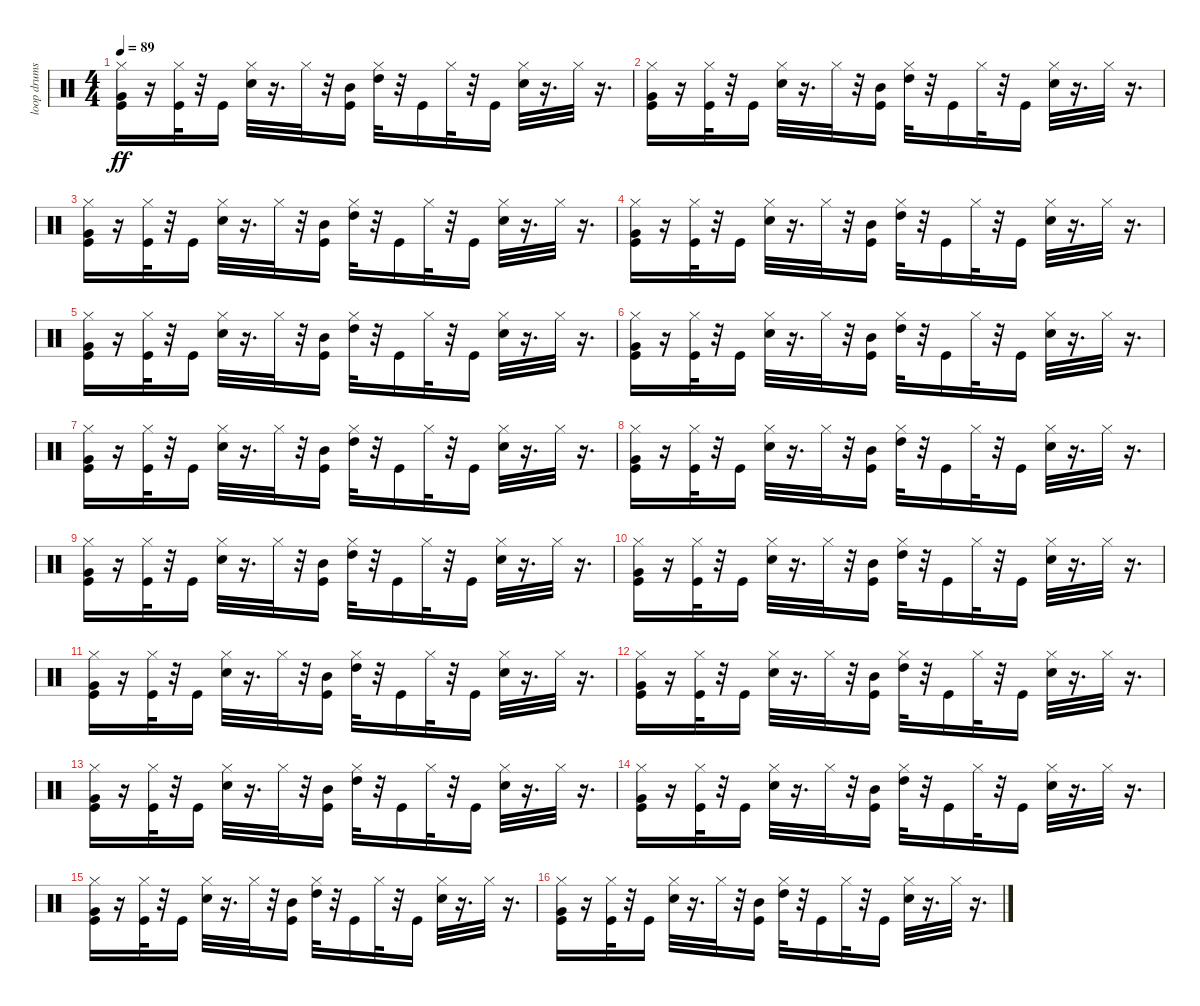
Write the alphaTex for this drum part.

\track ("loop drums" "loop drums") {instrument percussion}
\staff {score}
\articulation defaults
\ts (4 4)
\tempo 89
\clef neutral
\ks c
("Very Low Tom (hit)" "Kick (hit)" "Hi-Hat (closed)").16{dy ff} r.16 ("Kick (hit)" "Hi-Hat (closed)").32 r.32 "Kick (hit)".16 ("Hi-Hat (closed)" "Electric Snare (hit)").32 r.16{d} "Hi-Hat (closed)".32 r.32 ("Kick (hit)" "Mid Tom (hit)").16 ("Hi-Hat (closed)" "High Tom (hit)").32 r.32 "Kick (hit)".16 "Hi-Hat (closed)".32 r.32 "Kick (hit)".16 ("Hi-Hat (closed)" "Electric Snare (hit)").32 r.16{d} "Hi-Hat (closed)".32 r.16{d} |
("Very Low Tom (hit)" "Kick (hit)" "Hi-Hat (closed)").16 r.16 ("Kick (hit)" "Hi-Hat (closed)").32 r.32 "Kick (hit)".16 ("Hi-Hat (closed)" "Electric Snare (hit)").32 r.16{d} "Hi-Hat (closed)".32 r.32 ("Kick (hit)" "Mid Tom (hit)").16 ("Hi-Hat (closed)" "High Tom (hit)").32 r.32 "Kick (hit)".16 "Hi-Hat (closed)".32 r.32 "Kick (hit)".16 ("Hi-Hat (closed)" "Electric Snare (hit)").32 r.16{d} "Hi-Hat (closed)".32 r.16{d} |
("Kick (hit)" "Hi-Hat (closed)" "Very Low Tom (hit)").16 r.16 ("Kick (hit)" "Hi-Hat (closed)").32 r.32 "Kick (hit)".16 ("Hi-Hat (closed)" "Electric Snare (hit)").32 r.16{d} "Hi-Hat (closed)".32 r.32 ("Kick (hit)" "Mid Tom (hit)").16 ("Hi-Hat (closed)" "High Tom (hit)").32 r.32 "Kick (hit)".16 "Hi-Hat (closed)".32 r.32 "Kick (hit)".16 ("Hi-Hat (closed)" "Electric Snare (hit)").32 r.16{d} "Hi-Hat (closed)".32 r.16{d} |
("Very Low Tom (hit)" "Kick (hit)" "Hi-Hat (closed)").16 r.16 ("Kick (hit)" "Hi-Hat (closed)").32 r.32 "Kick (hit)".16 ("Hi-Hat (closed)" "Electric Snare (hit)").32 r.16{d} "Hi-Hat (closed)".32 r.32 ("Kick (hit)" "Mid Tom (hit)").16 ("Hi-Hat (closed)" "High Tom (hit)").32 r.32 "Kick (hit)".16 "Hi-Hat (closed)".32 r.32 "Kick (hit)".16 ("Hi-Hat (closed)" "Electric Snare (hit)").32 r.16{d} "Hi-Hat (closed)".32 r.16{d} |
("Very Low Tom (hit)" "Kick (hit)" "Hi-Hat (closed)").16 r.16 ("Kick (hit)" "Hi-Hat (closed)").32 r.32 "Kick (hit)".16 ("Hi-Hat (closed)" "Electric Snare (hit)").32 r.16{d} "Hi-Hat (closed)".32 r.32 ("Kick (hit)" "Mid Tom (hit)").16 ("Hi-Hat (closed)" "High Tom (hit)").32 r.32 "Kick (hit)".16 "Hi-Hat (closed)".32 r.32 "Kick (hit)".16 ("Hi-Hat (closed)" "Electric Snare (hit)").32 r.16{d} "Hi-Hat (closed)".32 r.16{d} |
("Very Low Tom (hit)" "Kick (hit)" "Hi-Hat (closed)").16 r.16 ("Kick (hit)" "Hi-Hat (closed)").32 r.32 "Kick (hit)".16 ("Hi-Hat (closed)" "Electric Snare (hit)").32 r.16{d} "Hi-Hat (closed)".32 r.32 ("Kick (hit)" "Mid Tom (hit)").16 ("Hi-Hat (closed)" "High Tom (hit)").32 r.32 "Kick (hit)".16 "Hi-Hat (closed)".32 r.32 "Kick (hit)".16 ("Hi-Hat (closed)" "Electric Snare (hit)").32 r.16{d} "Hi-Hat (closed)".32 r.16{d} |
("Kick (hit)" "Hi-Hat (closed)" "Very Low Tom (hit)").16 r.16 ("Kick (hit)" "Hi-Hat (closed)").32 r.32 "Kick (hit)".16 ("Hi-Hat (closed)" "Electric Snare (hit)").32 r.16{d} "Hi-Hat (closed)".32 r.32 ("Kick (hit)" "Mid Tom (hit)").16 ("Hi-Hat (closed)" "High Tom (hit)").32 r.32 "Kick (hit)".16 "Hi-Hat (closed)".32 r.32 "Kick (hit)".16 ("Hi-Hat (closed)" "Electric Snare (hit)").32 r.16{d} "Hi-Hat (closed)".32 r.16{d} |
("Very Low Tom (hit)" "Kick (hit)" "Hi-Hat (closed)").16 r.16 ("Kick (hit)" "Hi-Hat (closed)").32 r.32 "Kick (hit)".16 ("Hi-Hat (closed)" "Electric Snare (hit)").32 r.16{d} "Hi-Hat (closed)".32 r.32 ("Kick (hit)" "Mid Tom (hit)").16 ("Hi-Hat (closed)" "High Tom (hit)").32 r.32 "Kick (hit)".16 "Hi-Hat (closed)".32 r.32 "Kick (hit)".16 ("Hi-Hat (closed)" "Electric Snare (hit)").32 r.16{d} "Hi-Hat (closed)".32 r.16{d} |
("Very Low Tom (hit)" "Kick (hit)" "Hi-Hat (closed)").16 r.16 ("Kick (hit)" "Hi-Hat (closed)").32 r.32 "Kick (hit)".16 ("Hi-Hat (closed)" "Electric Snare (hit)").32 r.16{d} "Hi-Hat (closed)".32 r.32 ("Kick (hit)" "Mid Tom (hit)").16 ("Hi-Hat (closed)" "High Tom (hit)").32 r.32 "Kick (hit)".16 "Hi-Hat (closed)".32 r.32 "Kick (hit)".16 ("Hi-Hat (closed)" "Electric Snare (hit)").32 r.16{d} "Hi-Hat (closed)".32 r.16{d} |
("Very Low Tom (hit)" "Kick (hit)" "Hi-Hat (closed)").16 r.16 ("Kick (hit)" "Hi-Hat (closed)").32 r.32 "Kick (hit)".16 ("Hi-Hat (closed)" "Electric Snare (hit)").32 r.16{d} "Hi-Hat (closed)".32 r.32 ("Kick (hit)" "Mid Tom (hit)").16 ("Hi-Hat (closed)" "High Tom (hit)").32 r.32 "Kick (hit)".16 "Hi-Hat (closed)".32 r.32 "Kick (hit)".16 ("Hi-Hat (closed)" "Electric Snare (hit)").32 r.16{d} "Hi-Hat (closed)".32 r.16{d} |
("Kick (hit)" "Hi-Hat (closed)" "Very Low Tom (hit)").16 r.16 ("Kick (hit)" "Hi-Hat (closed)").32 r.32 "Kick (hit)".16 ("Hi-Hat (closed)" "Electric Snare (hit)").32 r.16{d} "Hi-Hat (closed)".32 r.32 ("Kick (hit)" "Mid Tom (hit)").16 ("Hi-Hat (closed)" "High Tom (hit)").32 r.32 "Kick (hit)".16 "Hi-Hat (closed)".32 r.32 "Kick (hit)".16 ("Hi-Hat (closed)" "Electric Snare (hit)").32 r.16{d} "Hi-Hat (closed)".32 r.16{d} |
("Very Low Tom (hit)" "Kick (hit)" "Hi-Hat (closed)").16 r.16 ("Kick (hit)" "Hi-Hat (closed)").32 r.32 "Kick (hit)".16 ("Hi-Hat (closed)" "Electric Snare (hit)").32 r.16{d} "Hi-Hat (closed)".32 r.32 ("Kick (hit)" "Mid Tom (hit)").16 ("Hi-Hat (closed)" "High Tom (hit)").32 r.32 "Kick (hit)".16 "Hi-Hat (closed)".32 r.32 "Kick (hit)".16 ("Hi-Hat (closed)" "Electric Snare (hit)").32 r.16{d} "Hi-Hat (closed)".32 r.16{d} |
("Very Low Tom (hit)" "Kick (hit)" "Hi-Hat (closed)").16 r.16 ("Kick (hit)" "Hi-Hat (closed)").32 r.32 "Kick (hit)".16 ("Hi-Hat (closed)" "Electric Snare (hit)").32 r.16{d} "Hi-Hat (closed)".32 r.32 ("Kick (hit)" "Mid Tom (hit)").16 ("Hi-Hat (closed)" "High Tom (hit)").32 r.32 "Kick (hit)".16 "Hi-Hat (closed)".32 r.32 "Kick (hit)".16 ("Hi-Hat (closed)" "Electric Snare (hit)").32 r.16{d} "Hi-Hat (closed)".32 r.16{d} |
("Very Low Tom (hit)" "Kick (hit)" "Hi-Hat (closed)").16 r.16 ("Kick (hit)" "Hi-Hat (closed)").32 r.32 "Kick (hit)".16 ("Hi-Hat (closed)" "Electric Snare (hit)").32 r.16{d} "Hi-Hat (closed)".32 r.32 ("Kick (hit)" "Mid Tom (hit)").16 ("Hi-Hat (closed)" "High Tom (hit)").32 r.32 "Kick (hit)".16 "Hi-Hat (closed)".32 r.32 "Kick (hit)".16 ("Hi-Hat (closed)" "Electric Snare (hit)").32 r.16{d} "Hi-Hat (closed)".32 r.16{d} |
("Kick (hit)" "Hi-Hat (closed)" "Very Low Tom (hit)").16 r.16 ("Kick (hit)" "Hi-Hat (closed)").32 r.32 "Kick (hit)".16 ("Hi-Hat (closed)" "Electric Snare (hit)").32 r.16{d} "Hi-Hat (closed)".32 r.32 ("Kick (hit)" "Mid Tom (hit)").16 ("Hi-Hat (closed)" "High Tom (hit)").32 r.32 "Kick (hit)".16 "Hi-Hat (closed)".32 r.32 "Kick (hit)".16 ("Hi-Hat (closed)" "Electric Snare (hit)").32 r.16{d} "Hi-Hat (closed)".32 r.16{d} |
("Very Low Tom (hit)" "Kick (hit)" "Hi-Hat (closed)").16 r.16 ("Kick (hit)" "Hi-Hat (closed)").32 r.32 "Kick (hit)".16 ("Hi-Hat (closed)" "Electric Snare (hit)").32 r.16{d} "Hi-Hat (closed)".32 r.32 ("Kick (hit)" "Mid Tom (hit)").16 ("Hi-Hat (closed)" "High Tom (hit)").32 r.32 "Kick (hit)".16 "Hi-Hat (closed)".32 r.32 "Kick (hit)".16 ("Hi-Hat (closed)" "Electric Snare (hit)").32 r.16{d} "Hi-Hat (closed)".32 r.16{d}
